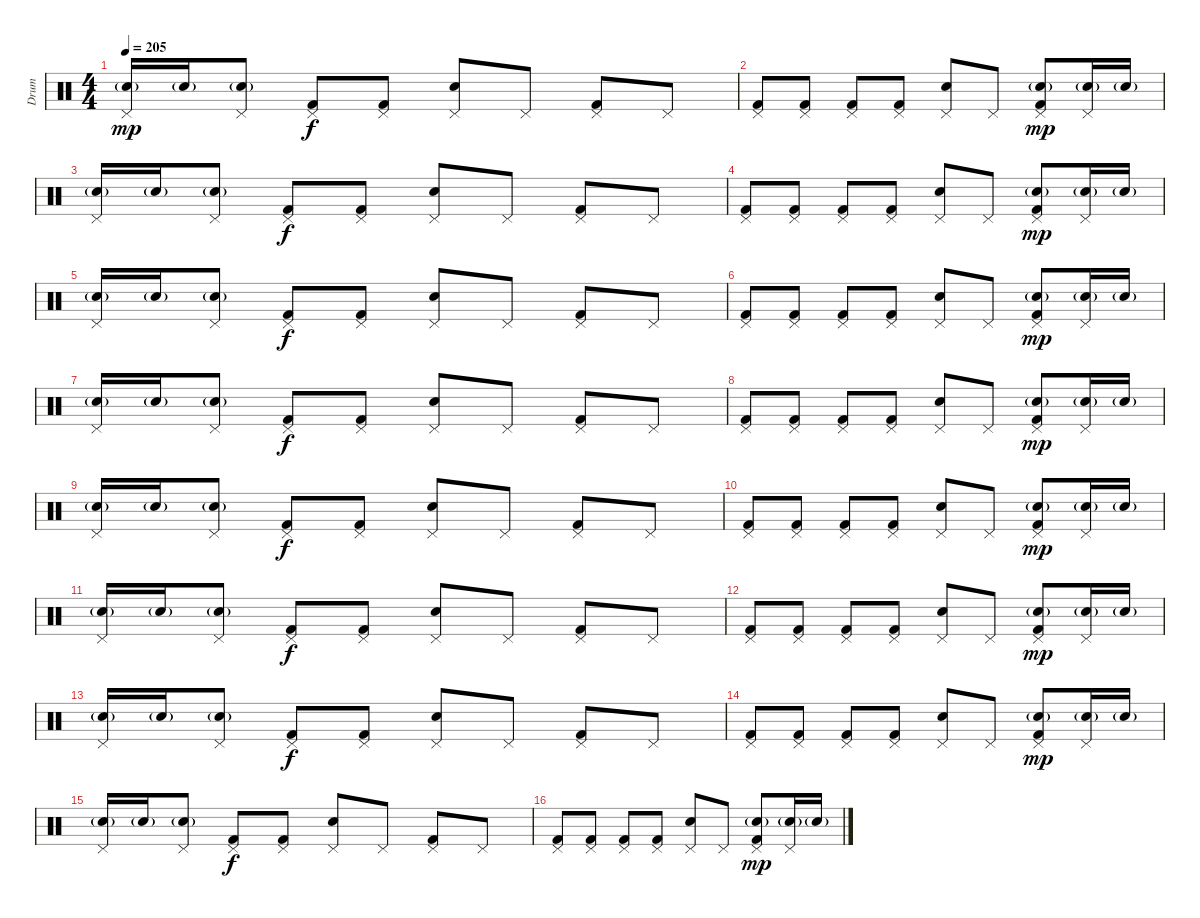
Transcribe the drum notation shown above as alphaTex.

\track ("Drum" "Drum") {instrument percussion}
\staff {score}
\articulation defaults
\ts (4 4)
\tempo 205
\clef neutral
\ks c
("Pedal Hi-Hat (hit)" "Snare (hit) 2"{g}).16{dy mp} "Snare (hit) 2"{g}.16 ("Pedal Hi-Hat (hit)" "Snare (hit) 2"{g}).8 ("Pedal Hi-Hat (hit)" "Kick (hit) 2").8{dy f} ("Pedal Hi-Hat (hit)" "Kick (hit) 2").8 ("Pedal Hi-Hat (hit)" "Snare (hit) 2").8 "Pedal Hi-Hat (hit)".8 ("Pedal Hi-Hat (hit)" "Kick (hit) 2").8 "Pedal Hi-Hat (hit)".8 |
("Pedal Hi-Hat (hit)" "Kick (hit) 2").8 ("Pedal Hi-Hat (hit)" "Kick (hit) 2").8 ("Pedal Hi-Hat (hit)" "Kick (hit) 2").8 ("Pedal Hi-Hat (hit)" "Kick (hit) 2").8 ("Pedal Hi-Hat (hit)" "Snare (hit) 2").8 "Pedal Hi-Hat (hit)".8 ("Pedal Hi-Hat (hit)" "Snare (hit) 2"{g} "Kick (hit) 2").8{dy mp} ("Pedal Hi-Hat (hit)" "Snare (hit) 2"{g}).16 "Snare (hit) 2"{g}.16 |
("Pedal Hi-Hat (hit)" "Snare (hit) 2"{g}).16 "Snare (hit) 2"{g}.16 ("Pedal Hi-Hat (hit)" "Snare (hit) 2"{g}).8 ("Pedal Hi-Hat (hit)" "Kick (hit) 2").8{dy f} ("Pedal Hi-Hat (hit)" "Kick (hit) 2").8 ("Pedal Hi-Hat (hit)" "Snare (hit) 2").8 "Pedal Hi-Hat (hit)".8 ("Pedal Hi-Hat (hit)" "Kick (hit) 2").8 "Pedal Hi-Hat (hit)".8 |
("Pedal Hi-Hat (hit)" "Kick (hit) 2").8 ("Pedal Hi-Hat (hit)" "Kick (hit) 2").8 ("Pedal Hi-Hat (hit)" "Kick (hit) 2").8 ("Pedal Hi-Hat (hit)" "Kick (hit) 2").8 ("Pedal Hi-Hat (hit)" "Snare (hit) 2").8 "Pedal Hi-Hat (hit)".8 ("Pedal Hi-Hat (hit)" "Snare (hit) 2"{g} "Kick (hit) 2").8{dy mp} ("Pedal Hi-Hat (hit)" "Snare (hit) 2"{g}).16 "Snare (hit) 2"{g}.16 |
("Pedal Hi-Hat (hit)" "Snare (hit) 2"{g}).16 "Snare (hit) 2"{g}.16 ("Pedal Hi-Hat (hit)" "Snare (hit) 2"{g}).8 ("Pedal Hi-Hat (hit)" "Kick (hit) 2").8{dy f} ("Pedal Hi-Hat (hit)" "Kick (hit) 2").8 ("Pedal Hi-Hat (hit)" "Snare (hit) 2").8 "Pedal Hi-Hat (hit)".8 ("Pedal Hi-Hat (hit)" "Kick (hit) 2").8 "Pedal Hi-Hat (hit)".8 |
("Pedal Hi-Hat (hit)" "Kick (hit) 2").8 ("Pedal Hi-Hat (hit)" "Kick (hit) 2").8 ("Pedal Hi-Hat (hit)" "Kick (hit) 2").8 ("Pedal Hi-Hat (hit)" "Kick (hit) 2").8 ("Pedal Hi-Hat (hit)" "Snare (hit) 2").8 "Pedal Hi-Hat (hit)".8 ("Pedal Hi-Hat (hit)" "Snare (hit) 2"{g} "Kick (hit) 2").8{dy mp} ("Pedal Hi-Hat (hit)" "Snare (hit) 2"{g}).16 "Snare (hit) 2"{g}.16 |
("Pedal Hi-Hat (hit)" "Snare (hit) 2"{g}).16 "Snare (hit) 2"{g}.16 ("Pedal Hi-Hat (hit)" "Snare (hit) 2"{g}).8 ("Pedal Hi-Hat (hit)" "Kick (hit) 2").8{dy f} ("Pedal Hi-Hat (hit)" "Kick (hit) 2").8 ("Pedal Hi-Hat (hit)" "Snare (hit) 2").8 "Pedal Hi-Hat (hit)".8 ("Pedal Hi-Hat (hit)" "Kick (hit) 2").8 "Pedal Hi-Hat (hit)".8 |
("Pedal Hi-Hat (hit)" "Kick (hit) 2").8 ("Pedal Hi-Hat (hit)" "Kick (hit) 2").8 ("Pedal Hi-Hat (hit)" "Kick (hit) 2").8 ("Pedal Hi-Hat (hit)" "Kick (hit) 2").8 ("Pedal Hi-Hat (hit)" "Snare (hit) 2").8 "Pedal Hi-Hat (hit)".8 ("Pedal Hi-Hat (hit)" "Snare (hit) 2"{g} "Kick (hit) 2").8{dy mp} ("Pedal Hi-Hat (hit)" "Snare (hit) 2"{g}).16 "Snare (hit) 2"{g}.16 |
("Pedal Hi-Hat (hit)" "Snare (hit) 2"{g}).16 "Snare (hit) 2"{g}.16 ("Pedal Hi-Hat (hit)" "Snare (hit) 2"{g}).8 ("Pedal Hi-Hat (hit)" "Kick (hit) 2").8{dy f} ("Pedal Hi-Hat (hit)" "Kick (hit) 2").8 ("Pedal Hi-Hat (hit)" "Snare (hit) 2").8 "Pedal Hi-Hat (hit)".8 ("Pedal Hi-Hat (hit)" "Kick (hit) 2").8 "Pedal Hi-Hat (hit)".8 |
("Pedal Hi-Hat (hit)" "Kick (hit) 2").8 ("Pedal Hi-Hat (hit)" "Kick (hit) 2").8 ("Pedal Hi-Hat (hit)" "Kick (hit) 2").8 ("Pedal Hi-Hat (hit)" "Kick (hit) 2").8 ("Pedal Hi-Hat (hit)" "Snare (hit) 2").8 "Pedal Hi-Hat (hit)".8 ("Pedal Hi-Hat (hit)" "Snare (hit) 2"{g} "Kick (hit) 2").8{dy mp} ("Pedal Hi-Hat (hit)" "Snare (hit) 2"{g}).16 "Snare (hit) 2"{g}.16 |
("Pedal Hi-Hat (hit)" "Snare (hit) 2"{g}).16 "Snare (hit) 2"{g}.16 ("Pedal Hi-Hat (hit)" "Snare (hit) 2"{g}).8 ("Pedal Hi-Hat (hit)" "Kick (hit) 2").8{dy f} ("Pedal Hi-Hat (hit)" "Kick (hit) 2").8 ("Pedal Hi-Hat (hit)" "Snare (hit) 2").8 "Pedal Hi-Hat (hit)".8 ("Pedal Hi-Hat (hit)" "Kick (hit) 2").8 "Pedal Hi-Hat (hit)".8 |
("Pedal Hi-Hat (hit)" "Kick (hit) 2").8 ("Pedal Hi-Hat (hit)" "Kick (hit) 2").8 ("Pedal Hi-Hat (hit)" "Kick (hit) 2").8 ("Pedal Hi-Hat (hit)" "Kick (hit) 2").8 ("Pedal Hi-Hat (hit)" "Snare (hit) 2").8 "Pedal Hi-Hat (hit)".8 ("Pedal Hi-Hat (hit)" "Snare (hit) 2"{g} "Kick (hit) 2").8{dy mp} ("Pedal Hi-Hat (hit)" "Snare (hit) 2"{g}).16 "Snare (hit) 2"{g}.16 |
("Pedal Hi-Hat (hit)" "Snare (hit) 2"{g}).16 "Snare (hit) 2"{g}.16 ("Pedal Hi-Hat (hit)" "Snare (hit) 2"{g}).8 ("Pedal Hi-Hat (hit)" "Kick (hit) 2").8{dy f} ("Pedal Hi-Hat (hit)" "Kick (hit) 2").8 ("Pedal Hi-Hat (hit)" "Snare (hit) 2").8 "Pedal Hi-Hat (hit)".8 ("Pedal Hi-Hat (hit)" "Kick (hit) 2").8 "Pedal Hi-Hat (hit)".8 |
("Pedal Hi-Hat (hit)" "Kick (hit) 2").8 ("Pedal Hi-Hat (hit)" "Kick (hit) 2").8 ("Pedal Hi-Hat (hit)" "Kick (hit) 2").8 ("Pedal Hi-Hat (hit)" "Kick (hit) 2").8 ("Pedal Hi-Hat (hit)" "Snare (hit) 2").8 "Pedal Hi-Hat (hit)".8 ("Pedal Hi-Hat (hit)" "Snare (hit) 2"{g} "Kick (hit) 2").8{dy mp} ("Pedal Hi-Hat (hit)" "Snare (hit) 2"{g}).16 "Snare (hit) 2"{g}.16 |
("Pedal Hi-Hat (hit)" "Snare (hit) 2"{g}).16 "Snare (hit) 2"{g}.16 ("Pedal Hi-Hat (hit)" "Snare (hit) 2"{g}).8 ("Pedal Hi-Hat (hit)" "Kick (hit) 2").8{dy f} ("Pedal Hi-Hat (hit)" "Kick (hit) 2").8 ("Pedal Hi-Hat (hit)" "Snare (hit) 2").8 "Pedal Hi-Hat (hit)".8 ("Pedal Hi-Hat (hit)" "Kick (hit) 2").8 "Pedal Hi-Hat (hit)".8 |
("Pedal Hi-Hat (hit)" "Kick (hit) 2").8 ("Pedal Hi-Hat (hit)" "Kick (hit) 2").8 ("Pedal Hi-Hat (hit)" "Kick (hit) 2").8 ("Pedal Hi-Hat (hit)" "Kick (hit) 2").8 ("Pedal Hi-Hat (hit)" "Snare (hit) 2").8 "Pedal Hi-Hat (hit)".8 ("Pedal Hi-Hat (hit)" "Snare (hit) 2"{g} "Kick (hit) 2").8{dy mp} ("Pedal Hi-Hat (hit)" "Snare (hit) 2"{g}).16 "Snare (hit) 2"{g}.16
